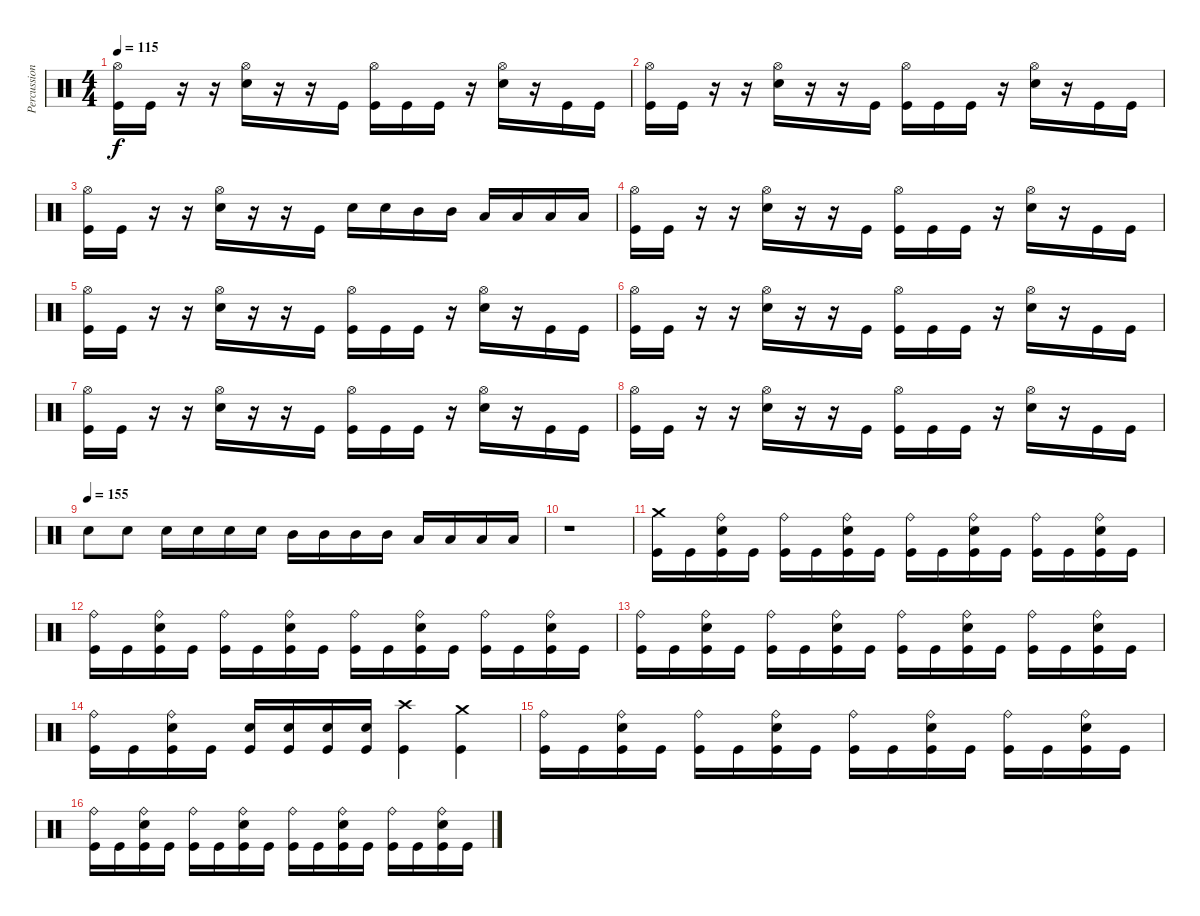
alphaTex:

\track ("Percussion" "Percussion") {instrument percussion}
\staff {score}
\articulation defaults
\ts (4 4)
\tempo 115
\clef neutral
\ks c
("Hi-Hat (open)" "Kick (hit)").16{dy f} "Kick (hit)".16 r.16 r.16 ("Hi-Hat (open)" "Snare (hit) 2").16 r.16 r.16 "Kick (hit)".16 ("Hi-Hat (open)" "Kick (hit)").16 "Kick (hit)".16 "Kick (hit)".16 r.16 ("Hi-Hat (open)" "Snare (hit) 2").16 r.16 "Kick (hit)".16 "Kick (hit)".16 |
("Hi-Hat (open)" "Kick (hit)").16 "Kick (hit)".16 r.16 r.16 ("Hi-Hat (open)" "Snare (hit) 2").16 r.16 r.16 "Kick (hit)".16 ("Hi-Hat (open)" "Kick (hit)").16 "Kick (hit)".16 "Kick (hit)".16 r.16 ("Hi-Hat (open)" "Snare (hit) 2").16 r.16 "Kick (hit)".16 "Kick (hit)".16 |
("Hi-Hat (open)" "Kick (hit)").16 "Kick (hit)".16 r.16 r.16 ("Hi-Hat (open)" "Snare (hit) 2").16 r.16 r.16 "Kick (hit)".16 "Snare (hit) 2".16 "Snare (hit) 2".16 "Mid Tom (hit)".16 "Mid Tom (hit)".16 "Low Tom (hit)".16 "Low Tom (hit)".16 "Low Floor Tom (hit)".16 "Low Floor Tom (hit)".16 |
("Hi-Hat (open)" "Kick (hit)").16 "Kick (hit)".16 r.16 r.16 ("Hi-Hat (open)" "Snare (hit) 2").16 r.16 r.16 "Kick (hit)".16 ("Hi-Hat (open)" "Kick (hit)").16 "Kick (hit)".16 "Kick (hit)".16 r.16 ("Hi-Hat (open)" "Snare (hit) 2").16 r.16 "Kick (hit)".16 "Kick (hit)".16 |
("Hi-Hat (open)" "Kick (hit)").16 "Kick (hit)".16 r.16 r.16 ("Hi-Hat (open)" "Snare (hit) 2").16 r.16 r.16 "Kick (hit)".16 ("Hi-Hat (open)" "Kick (hit)").16 "Kick (hit)".16 "Kick (hit)".16 r.16 ("Hi-Hat (open)" "Snare (hit) 2").16 r.16 "Kick (hit)".16 "Kick (hit)".16 |
("Hi-Hat (open)" "Kick (hit)").16 "Kick (hit)".16 r.16 r.16 ("Hi-Hat (open)" "Snare (hit) 2").16 r.16 r.16 "Kick (hit)".16 ("Hi-Hat (open)" "Kick (hit)").16 "Kick (hit)".16 "Kick (hit)".16 r.16 ("Hi-Hat (open)" "Snare (hit) 2").16 r.16 "Kick (hit)".16 "Kick (hit)".16 |
("Hi-Hat (open)" "Kick (hit)").16 "Kick (hit)".16 r.16 r.16 ("Hi-Hat (open)" "Snare (hit) 2").16 r.16 r.16 "Kick (hit)".16 ("Hi-Hat (open)" "Kick (hit)").16 "Kick (hit)".16 "Kick (hit)".16 r.16 ("Hi-Hat (open)" "Snare (hit) 2").16 r.16 "Kick (hit)".16 "Kick (hit)".16 |
("Hi-Hat (open)" "Kick (hit)").16 "Kick (hit)".16 r.16 r.16 ("Hi-Hat (open)" "Snare (hit) 2").16 r.16 r.16 "Kick (hit)".16 ("Hi-Hat (open)" "Kick (hit)").16 "Kick (hit)".16 "Kick (hit)".16 r.16 ("Hi-Hat (open)" "Snare (hit) 2").16 r.16 "Kick (hit)".16 "Kick (hit)".16 |
\tempo (155)
"Snare (hit) 2".8 "Snare (hit) 2".8 "Snare (hit) 2".16 "Snare (hit) 2".16 "Snare (hit) 2".16 "Snare (hit) 2".16 "Mid Tom (hit)".16 "Mid Tom (hit)".16 "Mid Tom (hit)".16 "Mid Tom (hit)".16 "Low Tom (hit)".16 "Low Tom (hit)".16 "Low Tom (hit)".16 "Low Tom (hit)".16 |
r.1 |
("Crash medium (hit)" "Kick (hit)").16 "Kick (hit)".16 ("Ride (bell)" "Snare (hit) 2" "Kick (hit)").16 "Kick (hit)".16 ("Ride (bell)" "Kick (hit)").16 "Kick (hit)".16 ("Ride (bell)" "Snare (hit) 2" "Kick (hit)").16 "Kick (hit)".16 ("Ride (bell)" "Kick (hit)").16 "Kick (hit)".16 ("Ride (bell)" "Snare (hit) 2" "Kick (hit)").16 "Kick (hit)".16 ("Ride (bell)" "Kick (hit)").16 "Kick (hit)".16 ("Ride (bell)" "Snare (hit) 2" "Kick (hit)").16 "Kick (hit)".16 |
("Ride (bell)" "Kick (hit)").16 "Kick (hit)".16 ("Ride (bell)" "Snare (hit) 2" "Kick (hit)").16 "Kick (hit)".16 ("Ride (bell)" "Kick (hit)").16 "Kick (hit)".16 ("Ride (bell)" "Snare (hit) 2" "Kick (hit)").16 "Kick (hit)".16 ("Ride (bell)" "Kick (hit)").16 "Kick (hit)".16 ("Ride (bell)" "Snare (hit) 2" "Kick (hit)").16 "Kick (hit)".16 ("Ride (bell)" "Kick (hit)").16 "Kick (hit)".16 ("Ride (bell)" "Snare (hit) 2" "Kick (hit)").16 "Kick (hit)".16 |
("Ride (bell)" "Kick (hit)").16 "Kick (hit)".16 ("Ride (bell)" "Snare (hit) 2" "Kick (hit)").16 "Kick (hit)".16 ("Ride (bell)" "Kick (hit)").16 "Kick (hit)".16 ("Ride (bell)" "Snare (hit) 2" "Kick (hit)").16 "Kick (hit)".16 ("Ride (bell)" "Kick (hit)").16 "Kick (hit)".16 ("Ride (bell)" "Snare (hit) 2" "Kick (hit)").16 "Kick (hit)".16 ("Ride (bell)" "Kick (hit)").16 "Kick (hit)".16 ("Ride (bell)" "Snare (hit) 2" "Kick (hit)").16 "Kick (hit)".16 |
("Ride (bell)" "Kick (hit)").16 "Kick (hit)".16 ("Ride (bell)" "Snare (hit) 2" "Kick (hit)").16 "Kick (hit)".16 ("Snare (hit) 2" "Kick (hit)").16 ("Snare (hit) 2" "Kick (hit)").16 ("Snare (hit) 2" "Kick (hit)").16 ("Snare (hit) 2" "Kick (hit)").16 ("Crash high (hit)" "Kick (hit)").4 ("Crash medium (hit)" "Kick (hit)").4 |
("Ride (bell)" "Kick (hit)").16 "Kick (hit)".16 ("Ride (bell)" "Snare (hit) 2" "Kick (hit)").16 "Kick (hit)".16 ("Ride (bell)" "Kick (hit)").16 "Kick (hit)".16 ("Ride (bell)" "Snare (hit) 2" "Kick (hit)").16 "Kick (hit)".16 ("Ride (bell)" "Kick (hit)").16 "Kick (hit)".16 ("Ride (bell)" "Snare (hit) 2" "Kick (hit)").16 "Kick (hit)".16 ("Ride (bell)" "Kick (hit)").16 "Kick (hit)".16 ("Ride (bell)" "Snare (hit) 2" "Kick (hit)").16 "Kick (hit)".16 |
("Ride (bell)" "Kick (hit)").16 "Kick (hit)".16 ("Ride (bell)" "Snare (hit) 2" "Kick (hit)").16 "Kick (hit)".16 ("Ride (bell)" "Kick (hit)").16 "Kick (hit)".16 ("Ride (bell)" "Snare (hit) 2" "Kick (hit)").16 "Kick (hit)".16 ("Ride (bell)" "Kick (hit)").16 "Kick (hit)".16 ("Ride (bell)" "Snare (hit) 2" "Kick (hit)").16 "Kick (hit)".16 ("Ride (bell)" "Kick (hit)").16 "Kick (hit)".16 ("Ride (bell)" "Snare (hit) 2" "Kick (hit)").16 "Kick (hit)".16
